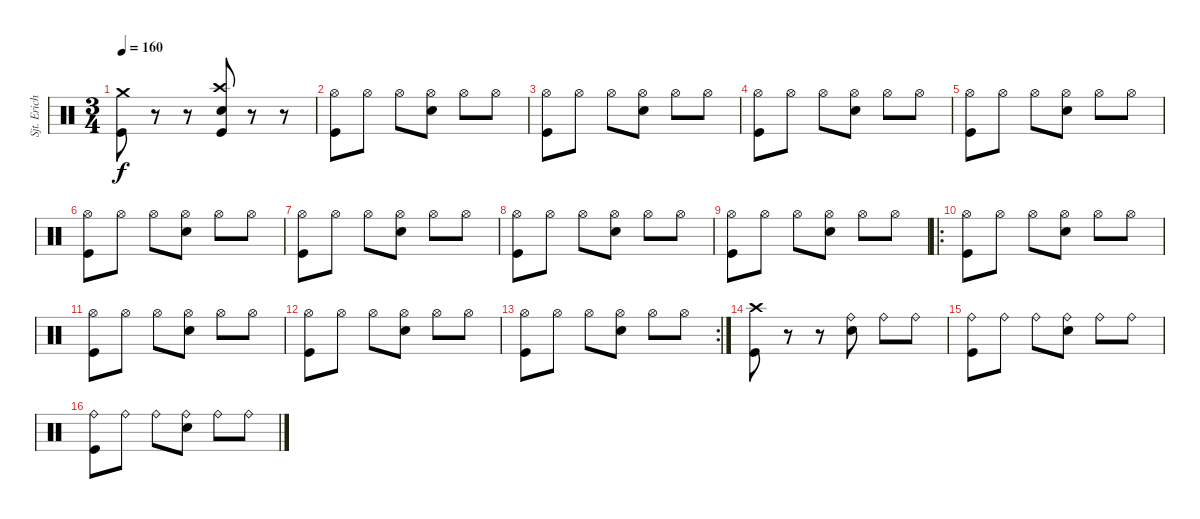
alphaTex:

\track ("Sjt. Erichsen" "Sjt. Erich") {instrument percussion}
\staff {score}
\articulation defaults
\ts (3 4)
\tempo 160
\clef neutral
\ks c
("Crash medium (hit)" "Kick (hit)").8{dy f} r.8 r.8 ("Crash high (hit)" "Electric Snare (hit)" "Kick (hit)").8 r.8 r.8 |
("Hi-Hat (open)" "Kick (hit)").8 "Hi-Hat (open)".8 "Hi-Hat (open)".8 ("Hi-Hat (open)" "Electric Snare (hit)").8 "Hi-Hat (open)".8 "Hi-Hat (open)".8 |
("Hi-Hat (open)" "Kick (hit)").8 "Hi-Hat (open)".8 "Hi-Hat (open)".8 ("Hi-Hat (open)" "Electric Snare (hit)").8 "Hi-Hat (open)".8 "Hi-Hat (open)".8 |
("Hi-Hat (open)" "Kick (hit)").8 "Hi-Hat (open)".8 "Hi-Hat (open)".8 ("Hi-Hat (open)" "Electric Snare (hit)").8 "Hi-Hat (open)".8 "Hi-Hat (open)".8 |
("Hi-Hat (open)" "Kick (hit)").8 "Hi-Hat (open)".8 "Hi-Hat (open)".8 ("Hi-Hat (open)" "Electric Snare (hit)").8 "Hi-Hat (open)".8 "Hi-Hat (open)".8 |
("Hi-Hat (open)" "Kick (hit)").8 "Hi-Hat (open)".8 "Hi-Hat (open)".8 ("Hi-Hat (open)" "Electric Snare (hit)").8 "Hi-Hat (open)".8 "Hi-Hat (open)".8 |
("Hi-Hat (open)" "Kick (hit)").8 "Hi-Hat (open)".8 "Hi-Hat (open)".8 ("Hi-Hat (open)" "Electric Snare (hit)").8 "Hi-Hat (open)".8 "Hi-Hat (open)".8 |
("Hi-Hat (open)" "Kick (hit)").8 "Hi-Hat (open)".8 "Hi-Hat (open)".8 ("Hi-Hat (open)" "Electric Snare (hit)").8 "Hi-Hat (open)".8 "Hi-Hat (open)".8 |
("Hi-Hat (open)" "Kick (hit)").8 "Hi-Hat (open)".8 "Hi-Hat (open)".8 ("Hi-Hat (open)" "Electric Snare (hit)").8 "Hi-Hat (open)".8 "Hi-Hat (open)".8 |
\ro
("Hi-Hat (open)" "Kick (hit)").8 "Hi-Hat (open)".8 "Hi-Hat (open)".8 ("Hi-Hat (open)" "Electric Snare (hit)").8 "Hi-Hat (open)".8 "Hi-Hat (open)".8 |
("Hi-Hat (open)" "Kick (hit)").8 "Hi-Hat (open)".8 "Hi-Hat (open)".8 ("Hi-Hat (open)" "Electric Snare (hit)").8 "Hi-Hat (open)".8 "Hi-Hat (open)".8 |
("Hi-Hat (open)" "Kick (hit)").8 "Hi-Hat (open)".8 "Hi-Hat (open)".8 ("Hi-Hat (open)" "Electric Snare (hit)").8 "Hi-Hat (open)".8 "Hi-Hat (open)".8 |
\rc 2
("Hi-Hat (open)" "Kick (hit)").8 "Hi-Hat (open)".8 "Hi-Hat (open)".8 ("Hi-Hat (open)" "Electric Snare (hit)").8 "Hi-Hat (open)".8 "Hi-Hat (open)".8 |
("Crash high (hit)" "Kick (hit)").8 r.8 r.8 ("Ride (bell)" "Electric Snare (hit)").8 "Ride (bell)".8 "Ride (bell)".8 |
("Ride (bell)" "Kick (hit)").8 "Ride (bell)".8 "Ride (bell)".8 ("Ride (bell)" "Electric Snare (hit)").8 "Ride (bell)".8 "Ride (bell)".8 |
("Ride (bell)" "Kick (hit)").8 "Ride (bell)".8 "Ride (bell)".8 ("Ride (bell)" "Electric Snare (hit)").8 "Ride (bell)".8 "Ride (bell)".8
